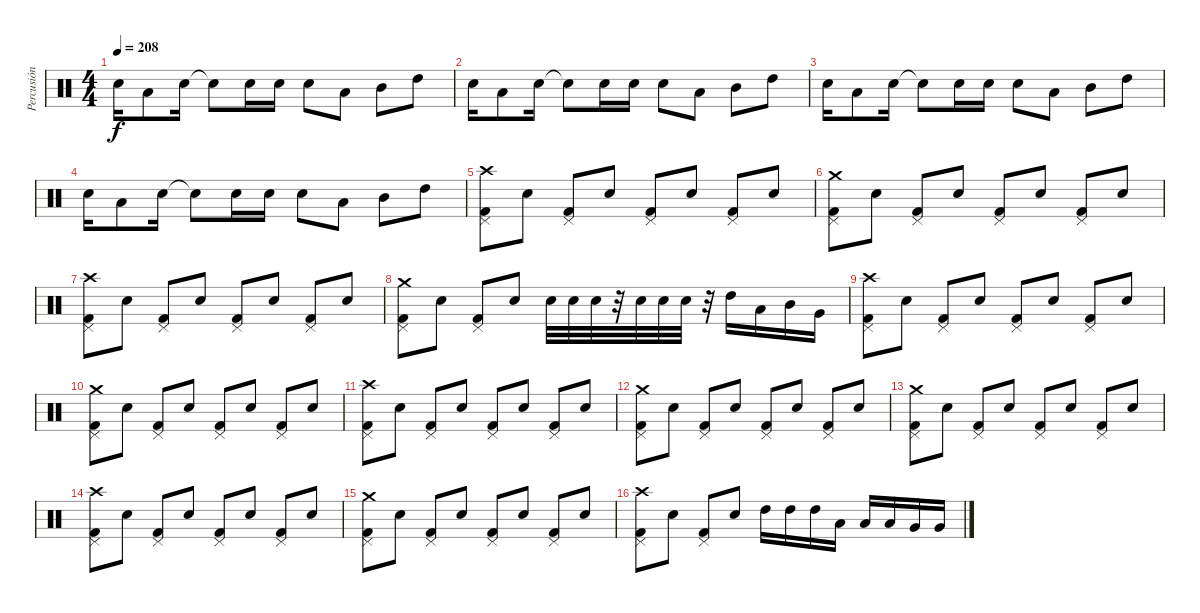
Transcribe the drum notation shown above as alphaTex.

\track ("Percusión" "Percusión") {instrument percussion}
\staff {score}
\articulation defaults
\ts (4 4)
\tempo 208
\clef neutral
\ks c "Electric Snare (hit)".16{dy f} "Low Tom (hit)".8 "Electric Snare (hit)".16 "Snare (hit)"{t}.8 "Electric Snare (hit)".16 "Electric Snare (hit)".16 "Electric Snare (hit)".8 "Low Tom (hit)".8 "Mid Tom (hit)".8 "High Tom (hit)".8
|
"Electric Snare (hit)".16 "Low Tom (hit)".8 "Electric Snare (hit)".16 "Snare (hit)"{t}.8 "Electric Snare (hit)".16 "Electric Snare (hit)".16 "Electric Snare (hit)".8 "Low Tom (hit)".8 "Mid Tom (hit)".8 "High Tom (hit)".8 |
"Electric Snare (hit)".16 "Low Tom (hit)".8 "Electric Snare (hit)".16 "Snare (hit)"{t}.8 "Electric Snare (hit)".16 "Electric Snare (hit)".16 "Electric Snare (hit)".8 "Low Tom (hit)".8 "Mid Tom (hit)".8 "High Tom (hit)".8 |
"Electric Snare (hit)".16 "Low Tom (hit)".8 "Electric Snare (hit)".16 "Snare (hit)"{t}.8 "Electric Snare (hit)".16 "Electric Snare (hit)".16 "Electric Snare (hit)".8 "Low Tom (hit)".8 "Mid Tom (hit)".8 "High Tom (hit)".8 |
("Crash high (hit)" "Pedal Hi-Hat (hit)" "Kick (hit) 2").8 "Electric Snare (hit)".8 ("Pedal Hi-Hat (hit)" "Kick (hit) 2").8 "Electric Snare (hit)".8 ("Pedal Hi-Hat (hit)" "Kick (hit) 2").8 "Electric Snare (hit)".8 ("Pedal Hi-Hat (hit)" "Kick (hit) 2").8 "Electric Snare (hit)".8 |
("Crash medium (hit)" "Pedal Hi-Hat (hit)" "Kick (hit) 2").8 "Electric Snare (hit)".8 ("Pedal Hi-Hat (hit)" "Kick (hit) 2").8 "Electric Snare (hit)".8 ("Pedal Hi-Hat (hit)" "Kick (hit) 2").8 "Electric Snare (hit)".8 ("Pedal Hi-Hat (hit)" "Kick (hit) 2").8 "Electric Snare (hit)".8 |
("Crash high (hit)" "Pedal Hi-Hat (hit)" "Kick (hit) 2").8 "Electric Snare (hit)".8 ("Pedal Hi-Hat (hit)" "Kick (hit) 2").8 "Electric Snare (hit)".8 ("Pedal Hi-Hat (hit)" "Kick (hit) 2").8 "Electric Snare (hit)".8 ("Pedal Hi-Hat (hit)" "Kick (hit) 2").8 "Electric Snare (hit)".8 |
("Crash medium (hit)" "Pedal Hi-Hat (hit)" "Kick (hit) 2").8 "Electric Snare (hit)".8 ("Pedal Hi-Hat (hit)" "Kick (hit) 2").8 "Electric Snare (hit)".8 "Electric Snare (hit)".32 "Electric Snare (hit)".32 "Electric Snare (hit)".32 r.32 "Electric Snare (hit)".32 "Electric Snare (hit)".32 "Electric Snare (hit)".32 r.32 "High Tom (hit)".16 "Low Tom (hit)".16 "Mid Tom (hit)".16 "Very Low Tom (hit)".16 |
("Crash high (hit)" "Pedal Hi-Hat (hit)" "Kick (hit) 2").8 "Electric Snare (hit)".8 ("Pedal Hi-Hat (hit)" "Kick (hit) 2").8 "Electric Snare (hit)".8 ("Pedal Hi-Hat (hit)" "Kick (hit) 2").8 "Electric Snare (hit)".8 ("Pedal Hi-Hat (hit)" "Kick (hit) 2").8 "Electric Snare (hit)".8 |
("Crash medium (hit)" "Pedal Hi-Hat (hit)" "Kick (hit) 2").8 "Electric Snare (hit)".8 ("Pedal Hi-Hat (hit)" "Kick (hit) 2").8 "Electric Snare (hit)".8 ("Pedal Hi-Hat (hit)" "Kick (hit) 2").8 "Electric Snare (hit)".8 ("Pedal Hi-Hat (hit)" "Kick (hit) 2").8 "Electric Snare (hit)".8 |
("Crash high (hit)" "Pedal Hi-Hat (hit)" "Kick (hit) 2").8 "Electric Snare (hit)".8 ("Pedal Hi-Hat (hit)" "Kick (hit) 2").8 "Electric Snare (hit)".8 ("Pedal Hi-Hat (hit)" "Kick (hit) 2").8 "Electric Snare (hit)".8 ("Pedal Hi-Hat (hit)" "Kick (hit) 2").8 "Electric Snare (hit)".8 |
("Crash medium (hit)" "Pedal Hi-Hat (hit)" "Kick (hit) 2").8 "Electric Snare (hit)".8 ("Pedal Hi-Hat (hit)" "Kick (hit) 2").8 "Electric Snare (hit)".8 ("Pedal Hi-Hat (hit)" "Kick (hit) 2").8 "Electric Snare (hit)".8 ("Pedal Hi-Hat (hit)" "Kick (hit) 2").8 "Electric Snare (hit)".8 |
("Crash medium (hit)" "Pedal Hi-Hat (hit)" "Kick (hit) 2").8 "Electric Snare (hit)".8 ("Pedal Hi-Hat (hit)" "Kick (hit) 2").8 "Electric Snare (hit)".8 ("Pedal Hi-Hat (hit)" "Kick (hit) 2").8 "Electric Snare (hit)".8 ("Pedal Hi-Hat (hit)" "Kick (hit) 2").8 "Electric Snare (hit)".8 |
("Crash high (hit)" "Pedal Hi-Hat (hit)" "Kick (hit) 2").8 "Electric Snare (hit)".8 ("Pedal Hi-Hat (hit)" "Kick (hit) 2").8 "Electric Snare (hit)".8 ("Pedal Hi-Hat (hit)" "Kick (hit) 2").8 "Electric Snare (hit)".8 ("Pedal Hi-Hat (hit)" "Kick (hit) 2").8 "Electric Snare (hit)".8 |
("Crash medium (hit)" "Pedal Hi-Hat (hit)" "Kick (hit) 2").8 "Electric Snare (hit)".8 ("Pedal Hi-Hat (hit)" "Kick (hit) 2").8 "Electric Snare (hit)".8 ("Pedal Hi-Hat (hit)" "Kick (hit) 2").8 "Electric Snare (hit)".8 ("Pedal Hi-Hat (hit)" "Kick (hit) 2").8 "Electric Snare (hit)".8 |
("Crash high (hit)" "Pedal Hi-Hat (hit)" "Kick (hit) 2").8 "Electric Snare (hit)".8 ("Pedal Hi-Hat (hit)" "Kick (hit) 2").8 "Electric Snare (hit)".8 "High Tom (hit)".16 "High Tom (hit)".16 "High Tom (hit)".16 "Low Tom (hit)".16 "Low Tom (hit)".16 "Low Tom (hit)".16 "Very Low Tom (hit)".16 "Very Low Tom (hit)".16
